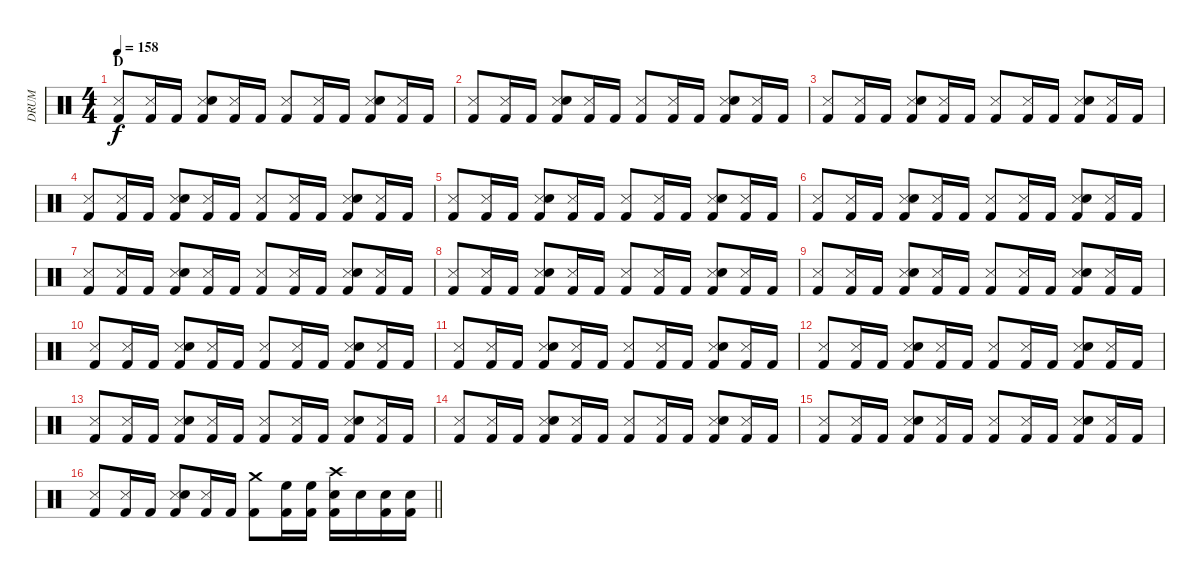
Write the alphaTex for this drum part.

\track ("DRUM" "DRUM") {instrument percussion}
\staff {score}
\articulation defaults
\ts (4 4)
\section ("" "D")
\tempo 158
\clef neutral
\ks c
("Metronome (hit)" "Kick (hit) 2").8{dy f} ("Metronome (hit)" "Kick (hit) 2").16 "Kick (hit) 2".16 ("Metronome (hit)" "Snare (hit) 2" "Kick (hit) 2").8 ("Metronome (hit)" "Kick (hit) 2").16 "Kick (hit) 2".16 ("Metronome (hit)" "Kick (hit) 2").8 ("Metronome (hit)" "Kick (hit) 2").16 "Kick (hit) 2".16 ("Metronome (hit)" "Snare (hit) 2" "Kick (hit) 2").8 ("Metronome (hit)" "Kick (hit) 2").16 "Kick (hit) 2".16 |
("Metronome (hit)" "Kick (hit) 2").8 ("Metronome (hit)" "Kick (hit) 2").16 "Kick (hit) 2".16 ("Metronome (hit)" "Snare (hit) 2" "Kick (hit) 2").8 ("Metronome (hit)" "Kick (hit) 2").16 "Kick (hit) 2".16 ("Metronome (hit)" "Kick (hit) 2").8 ("Metronome (hit)" "Kick (hit) 2").16 "Kick (hit) 2".16 ("Metronome (hit)" "Snare (hit) 2" "Kick (hit) 2").8 ("Metronome (hit)" "Kick (hit) 2").16 "Kick (hit) 2".16 |
("Metronome (hit)" "Kick (hit) 2").8 ("Metronome (hit)" "Kick (hit) 2").16 "Kick (hit) 2".16 ("Metronome (hit)" "Snare (hit) 2" "Kick (hit) 2").8 ("Metronome (hit)" "Kick (hit) 2").16 "Kick (hit) 2".16 ("Metronome (hit)" "Kick (hit) 2").8 ("Metronome (hit)" "Kick (hit) 2").16 "Kick (hit) 2".16 ("Metronome (hit)" "Snare (hit) 2" "Kick (hit) 2").8 ("Metronome (hit)" "Kick (hit) 2").16 "Kick (hit) 2".16 |
("Metronome (hit)" "Kick (hit) 2").8 ("Metronome (hit)" "Kick (hit) 2").16 "Kick (hit) 2".16 ("Metronome (hit)" "Snare (hit) 2" "Kick (hit) 2").8 ("Metronome (hit)" "Kick (hit) 2").16 "Kick (hit) 2".16 ("Metronome (hit)" "Kick (hit) 2").8 ("Metronome (hit)" "Kick (hit) 2").16 "Kick (hit) 2".16 ("Metronome (hit)" "Snare (hit) 2" "Kick (hit) 2").8 ("Metronome (hit)" "Kick (hit) 2").16 "Kick (hit) 2".16 |
("Metronome (hit)" "Kick (hit) 2").8 ("Metronome (hit)" "Kick (hit) 2").16 "Kick (hit) 2".16 ("Metronome (hit)" "Snare (hit) 2" "Kick (hit) 2").8 ("Metronome (hit)" "Kick (hit) 2").16 "Kick (hit) 2".16 ("Metronome (hit)" "Kick (hit) 2").8 ("Metronome (hit)" "Kick (hit) 2").16 "Kick (hit) 2".16 ("Metronome (hit)" "Snare (hit) 2" "Kick (hit) 2").8 ("Metronome (hit)" "Kick (hit) 2").16 "Kick (hit) 2".16 |
("Metronome (hit)" "Kick (hit) 2").8 ("Metronome (hit)" "Kick (hit) 2").16 "Kick (hit) 2".16 ("Metronome (hit)" "Snare (hit) 2" "Kick (hit) 2").8 ("Metronome (hit)" "Kick (hit) 2").16 "Kick (hit) 2".16 ("Metronome (hit)" "Kick (hit) 2").8 ("Metronome (hit)" "Kick (hit) 2").16 "Kick (hit) 2".16 ("Metronome (hit)" "Snare (hit) 2" "Kick (hit) 2").8 ("Metronome (hit)" "Kick (hit) 2").16 "Kick (hit) 2".16 |
("Metronome (hit)" "Kick (hit) 2").8 ("Metronome (hit)" "Kick (hit) 2").16 "Kick (hit) 2".16 ("Metronome (hit)" "Snare (hit) 2" "Kick (hit) 2").8 ("Metronome (hit)" "Kick (hit) 2").16 "Kick (hit) 2".16 ("Metronome (hit)" "Kick (hit) 2").8 ("Metronome (hit)" "Kick (hit) 2").16 "Kick (hit) 2".16 ("Metronome (hit)" "Snare (hit) 2" "Kick (hit) 2").8 ("Metronome (hit)" "Kick (hit) 2").16 "Kick (hit) 2".16 |
("Metronome (hit)" "Kick (hit) 2").8 ("Metronome (hit)" "Kick (hit) 2").16 "Kick (hit) 2".16 ("Metronome (hit)" "Snare (hit) 2" "Kick (hit) 2").8 ("Metronome (hit)" "Kick (hit) 2").16 "Kick (hit) 2".16 ("Metronome (hit)" "Kick (hit) 2").8 ("Metronome (hit)" "Kick (hit) 2").16 "Kick (hit) 2".16 ("Metronome (hit)" "Snare (hit) 2" "Kick (hit) 2").8 ("Metronome (hit)" "Kick (hit) 2").16 "Kick (hit) 2".16 |
("Metronome (hit)" "Kick (hit) 2").8 ("Metronome (hit)" "Kick (hit) 2").16 "Kick (hit) 2".16 ("Metronome (hit)" "Snare (hit) 2" "Kick (hit) 2").8 ("Metronome (hit)" "Kick (hit) 2").16 "Kick (hit) 2".16 ("Metronome (hit)" "Kick (hit) 2").8 ("Metronome (hit)" "Kick (hit) 2").16 "Kick (hit) 2".16 ("Metronome (hit)" "Snare (hit) 2" "Kick (hit) 2").8 ("Metronome (hit)" "Kick (hit) 2").16 "Kick (hit) 2".16 |
("Metronome (hit)" "Kick (hit) 2").8 ("Metronome (hit)" "Kick (hit) 2").16 "Kick (hit) 2".16 ("Metronome (hit)" "Snare (hit) 2" "Kick (hit) 2").8 ("Metronome (hit)" "Kick (hit) 2").16 "Kick (hit) 2".16 ("Metronome (hit)" "Kick (hit) 2").8 ("Metronome (hit)" "Kick (hit) 2").16 "Kick (hit) 2".16 ("Metronome (hit)" "Snare (hit) 2" "Kick (hit) 2").8 ("Metronome (hit)" "Kick (hit) 2").16 "Kick (hit) 2".16 |
("Metronome (hit)" "Kick (hit) 2").8 ("Metronome (hit)" "Kick (hit) 2").16 "Kick (hit) 2".16 ("Metronome (hit)" "Snare (hit) 2" "Kick (hit) 2").8 ("Metronome (hit)" "Kick (hit) 2").16 "Kick (hit) 2".16 ("Metronome (hit)" "Kick (hit) 2").8 ("Metronome (hit)" "Kick (hit) 2").16 "Kick (hit) 2".16 ("Metronome (hit)" "Snare (hit) 2" "Kick (hit) 2").8 ("Metronome (hit)" "Kick (hit) 2").16 "Kick (hit) 2".16 |
("Metronome (hit)" "Kick (hit) 2").8 ("Metronome (hit)" "Kick (hit) 2").16 "Kick (hit) 2".16 ("Metronome (hit)" "Snare (hit) 2" "Kick (hit) 2").8 ("Metronome (hit)" "Kick (hit) 2").16 "Kick (hit) 2".16 ("Metronome (hit)" "Kick (hit) 2").8 ("Metronome (hit)" "Kick (hit) 2").16 "Kick (hit) 2".16 ("Metronome (hit)" "Snare (hit) 2" "Kick (hit) 2").8 ("Metronome (hit)" "Kick (hit) 2").16 "Kick (hit) 2".16 |
("Metronome (hit)" "Kick (hit) 2").8 ("Metronome (hit)" "Kick (hit) 2").16 "Kick (hit) 2".16 ("Metronome (hit)" "Snare (hit) 2" "Kick (hit) 2").8 ("Metronome (hit)" "Kick (hit) 2").16 "Kick (hit) 2".16 ("Metronome (hit)" "Kick (hit) 2").8 ("Metronome (hit)" "Kick (hit) 2").16 "Kick (hit) 2".16 ("Metronome (hit)" "Snare (hit) 2" "Kick (hit) 2").8 ("Metronome (hit)" "Kick (hit) 2").16 "Kick (hit) 2".16 |
("Metronome (hit)" "Kick (hit) 2").8 ("Metronome (hit)" "Kick (hit) 2").16 "Kick (hit) 2".16 ("Metronome (hit)" "Snare (hit) 2" "Kick (hit) 2").8 ("Metronome (hit)" "Kick (hit) 2").16 "Kick (hit) 2".16 ("Metronome (hit)" "Kick (hit) 2").8 ("Metronome (hit)" "Kick (hit) 2").16 "Kick (hit) 2".16 ("Metronome (hit)" "Snare (hit) 2" "Kick (hit) 2").8 ("Metronome (hit)" "Kick (hit) 2").16 "Kick (hit) 2".16 |
("Metronome (hit)" "Kick (hit) 2").8 ("Metronome (hit)" "Kick (hit) 2").16 "Kick (hit) 2".16 ("Metronome (hit)" "Snare (hit) 2" "Kick (hit) 2").8 ("Metronome (hit)" "Kick (hit) 2").16 "Kick (hit) 2".16 ("Metronome (hit)" "Kick (hit) 2").8 ("Metronome (hit)" "Kick (hit) 2").16 "Kick (hit) 2".16 ("Metronome (hit)" "Snare (hit) 2" "Kick (hit) 2").8 ("Metronome (hit)" "Kick (hit) 2").16 "Kick (hit) 2".16 |
\barLineRight lightlight
("Metronome (hit)" "Kick (hit) 2").8 ("Metronome (hit)" "Kick (hit) 2").16 "Kick (hit) 2".16 ("Metronome (hit)" "Snare (hit) 2" "Kick (hit) 2").8 ("Metronome (hit)" "Kick (hit) 2").16 "Kick (hit) 2".16 ("Crash medium (hit)" "Kick (hit) 2").8 ("High Floor Tom (hit)" "Kick (hit) 2").16 ("High Floor Tom (hit)" "Kick (hit) 2").16 ("Crash high (hit)" "Snare (hit) 2" "Kick (hit) 2").16 "Snare (hit) 2".16 ("Snare (hit) 2" "Kick (hit) 2").16 ("Snare (hit) 2" "Kick (hit) 2").16
